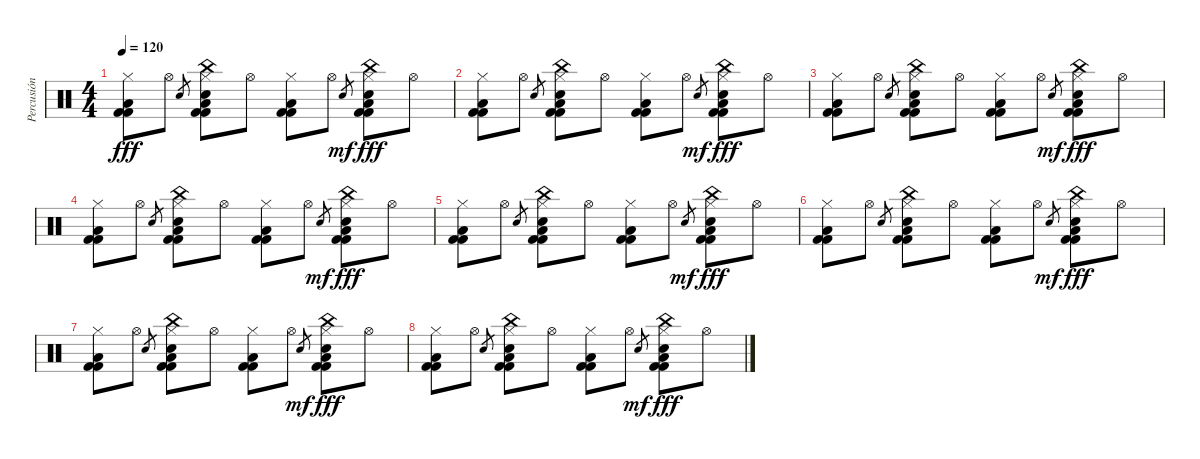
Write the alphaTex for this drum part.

\track ("Percusión II" "Percusión ") {instrument percussion}
\staff {score}
\articulation defaults
\ts (4 4)
\tempo 120
\clef neutral
\ks c
("Kick (hit) 2" "Hi-Hat (closed)" "Low Floor Tom (hit)" "Kick (hit) 2").8{dy fff} "Hi-Hat (open)".8 "Hand Clap (hit)".8{gr} ("Kick (hit) 2" "Hi-Hat (closed)" "Electric Snare (hit)" "China (hit)" "Low Floor Tom (hit)" "Kick (hit) 2").8 "Hi-Hat (open)".8 ("Kick (hit) 2" "Hi-Hat (closed)" "Low Floor Tom (hit)" "Kick (hit) 2").8 "Hi-Hat (open)".8 "Hand Clap (hit)".8{gr dy mf} ("Kick (hit) 2" "Hi-Hat (closed)" "Electric Snare (hit)" "China (hit)" "Low Floor Tom (hit)" "Kick (hit) 2").8{dy fff} "Hi-Hat (open)".8 |
("Kick (hit) 2" "Hi-Hat (closed)" "Low Floor Tom (hit)" "Kick (hit) 2").8 "Hi-Hat (open)".8 "Hand Clap (hit)".8{gr} ("Kick (hit) 2" "Hi-Hat (closed)" "Electric Snare (hit)" "China (hit)" "Low Floor Tom (hit)" "Kick (hit) 2").8 "Hi-Hat (open)".8 ("Kick (hit) 2" "Hi-Hat (closed)" "Low Floor Tom (hit)" "Kick (hit) 2").8 "Hi-Hat (open)".8 "Hand Clap (hit)".8{gr dy mf} ("Kick (hit) 2" "Hi-Hat (closed)" "Electric Snare (hit)" "China (hit)" "Low Floor Tom (hit)" "Kick (hit) 2").8{dy fff} "Hi-Hat (open)".8 |
("Kick (hit) 2" "Hi-Hat (closed)" "Low Floor Tom (hit)" "Kick (hit) 2").8 "Hi-Hat (open)".8 "Hand Clap (hit)".8{gr} ("Kick (hit) 2" "Hi-Hat (closed)" "Electric Snare (hit)" "China (hit)" "Low Floor Tom (hit)" "Kick (hit) 2").8 "Hi-Hat (open)".8 ("Kick (hit) 2" "Hi-Hat (closed)" "Low Floor Tom (hit)" "Kick (hit) 2").8 "Hi-Hat (open)".8 "Hand Clap (hit)".8{gr dy mf} ("Kick (hit) 2" "Hi-Hat (closed)" "Electric Snare (hit)" "China (hit)" "Low Floor Tom (hit)" "Kick (hit) 2").8{dy fff} "Hi-Hat (open)".8 |
("Kick (hit) 2" "Hi-Hat (closed)" "Low Floor Tom (hit)" "Kick (hit) 2").8 "Hi-Hat (open)".8 "Hand Clap (hit)".8{gr} ("Kick (hit) 2" "Hi-Hat (closed)" "Electric Snare (hit)" "China (hit)" "Low Floor Tom (hit)" "Kick (hit) 2").8 "Hi-Hat (open)".8 ("Kick (hit) 2" "Hi-Hat (closed)" "Low Floor Tom (hit)" "Kick (hit) 2").8 "Hi-Hat (open)".8 "Hand Clap (hit)".8{gr dy mf} ("Kick (hit) 2" "Hi-Hat (closed)" "Electric Snare (hit)" "China (hit)" "Low Floor Tom (hit)" "Kick (hit) 2").8{dy fff} "Hi-Hat (open)".8 |
("Kick (hit) 2" "Hi-Hat (closed)" "Low Floor Tom (hit)" "Kick (hit) 2").8 "Hi-Hat (open)".8 "Hand Clap (hit)".8{gr} ("Kick (hit) 2" "Hi-Hat (closed)" "Electric Snare (hit)" "China (hit)" "Low Floor Tom (hit)" "Kick (hit) 2").8 "Hi-Hat (open)".8 ("Kick (hit) 2" "Hi-Hat (closed)" "Low Floor Tom (hit)" "Kick (hit) 2").8 "Hi-Hat (open)".8 "Hand Clap (hit)".8{gr dy mf} ("Kick (hit) 2" "Hi-Hat (closed)" "Electric Snare (hit)" "China (hit)" "Low Floor Tom (hit)" "Kick (hit) 2").8{dy fff} "Hi-Hat (open)".8 |
("Kick (hit) 2" "Hi-Hat (closed)" "Low Floor Tom (hit)" "Kick (hit) 2").8 "Hi-Hat (open)".8 "Hand Clap (hit)".8{gr} ("Kick (hit) 2" "Hi-Hat (closed)" "Electric Snare (hit)" "China (hit)" "Low Floor Tom (hit)" "Kick (hit) 2").8 "Hi-Hat (open)".8 ("Kick (hit) 2" "Hi-Hat (closed)" "Low Floor Tom (hit)" "Kick (hit) 2").8 "Hi-Hat (open)".8 "Hand Clap (hit)".8{gr dy mf} ("Kick (hit) 2" "Hi-Hat (closed)" "Electric Snare (hit)" "China (hit)" "Low Floor Tom (hit)" "Kick (hit) 2").8{dy fff} "Hi-Hat (open)".8 |
("Kick (hit) 2" "Hi-Hat (closed)" "Low Floor Tom (hit)" "Kick (hit) 2").8 "Hi-Hat (open)".8 "Hand Clap (hit)".8{gr} ("Kick (hit) 2" "Hi-Hat (closed)" "Electric Snare (hit)" "China (hit)" "Low Floor Tom (hit)" "Kick (hit) 2").8 "Hi-Hat (open)".8 ("Kick (hit) 2" "Hi-Hat (closed)" "Low Floor Tom (hit)" "Kick (hit) 2").8 "Hi-Hat (open)".8 "Hand Clap (hit)".8{gr dy mf} ("Kick (hit) 2" "Hi-Hat (closed)" "Electric Snare (hit)" "China (hit)" "Low Floor Tom (hit)" "Kick (hit) 2").8{dy fff} "Hi-Hat (open)".8 |
("Kick (hit) 2" "Hi-Hat (closed)" "Low Floor Tom (hit)" "Kick (hit) 2").8 "Hi-Hat (open)".8 "Hand Clap (hit)".8{gr} ("Kick (hit) 2" "Hi-Hat (closed)" "Electric Snare (hit)" "China (hit)" "Low Floor Tom (hit)" "Kick (hit) 2").8 "Hi-Hat (open)".8 ("Kick (hit) 2" "Hi-Hat (closed)" "Low Floor Tom (hit)" "Kick (hit) 2").8 "Hi-Hat (open)".8 "Hand Clap (hit)".8{gr dy mf} ("Kick (hit) 2" "Hi-Hat (closed)" "Electric Snare (hit)" "China (hit)" "Low Floor Tom (hit)" "Kick (hit) 2").8{dy fff} "Hi-Hat (open)".8
